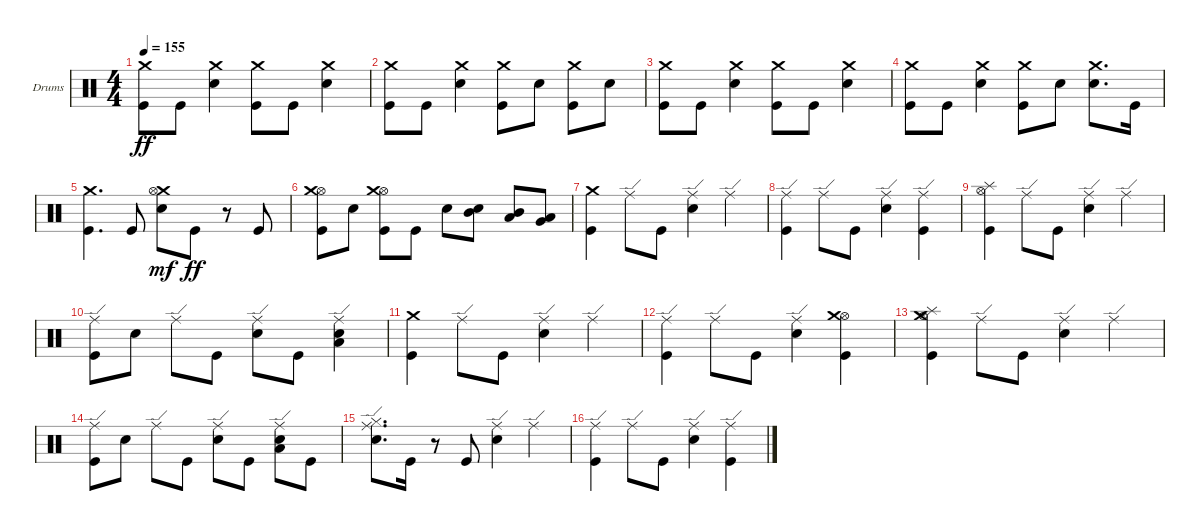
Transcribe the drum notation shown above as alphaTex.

\defaultSystemsLayout 4
\bracketExtendMode groupsimilarinstruments
\firstSystemTrackNameOrientation horizontal
\otherSystemsTrackNameOrientation horizontal
\track ("Drums - Brandon Barnes" "Drums") {instrument percussion}
\staff {score}
\articulation defaults
\ts (4 4)
\tempo 155
\clef neutral
\scale
0.333333
\ks c
("Crash medium (hit)" "Kick (hit)").8{dy ff} "Kick (hit)".8 ("Snare (hit) 2" "Crash medium (hit)").4 ("Crash medium (hit)" "Kick (hit)").8 "Kick (hit)".8 ("Snare (hit) 2" "Crash medium (hit)").4 |
\scale
0.333333 ("Crash medium (hit)" "Kick (hit)").8 "Kick (hit)".8 ("Snare (hit) 2" "Crash medium (hit)").4 ("Crash medium (hit)" "Kick (hit)").8 "Snare (hit) 2".8 ("Crash medium (hit)" "Kick (hit)").8 "Snare (hit) 2".8 |
\scale
0.333333 ("Crash medium (hit)" "Kick (hit)").8 "Kick (hit)".8 ("Snare (hit) 2" "Crash medium (hit)").4 ("Crash medium (hit)" "Kick (hit)").8 "Kick (hit)".8 ("Snare (hit) 2" "Crash medium (hit)").4 |
\scale
0.333333 ("Crash medium (hit)" "Kick (hit)").8 "Kick (hit)".8 ("Snare (hit) 2" "Crash medium (hit)").4 ("Crash medium (hit)" "Kick (hit)").8 "Snare (hit) 2".8 ("Snare (hit) 2" "Crash medium (hit)").8{d} "Kick (hit)".16 |
\scale
0.333333 ("Crash medium (hit)" "Kick (hit)").4{d} "Kick (hit)".8 ("Snare (hit) 2" "Crash medium (hit)" "Hi-Hat (open)").8{dy mf} "Kick (hit)".8{dy ff} r.8 "Kick (hit)".8 |
\scale
0.333333 ("Kick (hit)" "Hi-Hat (open)" "Crash medium (hit)").8 "Snare (hit) 2".8 ("Kick (hit)" "Hi-Hat (open)" "Crash medium (hit)").8 "Kick (hit)".8 "Snare (hit) 2".8 ("Mid Tom (hit)" "Snare (hit) 2").8 ("Mid Tom (hit)" "Low Tom (hit)").8 ("Low Tom (hit)" "Very Low Tom (hit)").8 |
\scale
0.333333 ("Kick (hit)" "Crash medium (hit)").4 "Ride (edge)".8 "Kick (hit)".8 ("Snare (hit) 2" "Ride (edge)").4 "Ride (edge)".4 |
\scale
0.333333 ("Kick (hit)" "Ride (edge)").4 "Ride (edge)".8 "Kick (hit)".8 ("Snare (hit) 2" "Ride (edge)").4 ("Ride (edge)" "Kick (hit)").4 |
\scale
0.333333 ("Kick (hit)" "Splash (hit)" "Hi-Hat (open)").4 "Ride (edge)".8 "Kick (hit)".8 ("Snare (hit) 2" "Ride (edge)").4 "Ride (edge)".4 |
\scale
0.333333 ("Kick (hit)" "Ride (edge)").8 "Snare (hit) 2".8 "Ride (edge)".8 "Kick (hit)".8 ("Snare (hit) 2" "Ride (edge)").8 "Kick (hit)".8 ("Snare (hit) 2" "Low Tom (hit)" "Ride (edge)").4 |
\scale
0.333333 ("Kick (hit)" "Crash medium (hit)").4 "Ride (edge)".8 "Kick (hit)".8 ("Snare (hit) 2" "Ride (edge)").4 "Ride (edge)".4 |
\scale
0.333333 ("Kick (hit)" "Ride (edge)").4 "Ride (edge)".8 "Kick (hit)".8 ("Snare (hit) 2" "Ride (edge)").4 ("Hi-Hat (open)" "Kick (hit)" "Crash medium (hit)").4 |
\scale
0.333333 ("Kick (hit)" "Splash (hit)" "Hi-Hat (open)" "Crash medium (hit)").4 "Ride (edge)".8 "Kick (hit)".8 ("Snare (hit) 2" "Ride (edge)").4 "Ride (edge)".4 |
\scale
0.333333 ("Kick (hit)" "Ride (edge)").8 "Snare (hit) 2".8 "Ride (edge)".8 "Kick (hit)".8 ("Snare (hit) 2" "Ride (edge)").8 "Kick (hit)".8 ("Snare (hit) 2" "Low Tom (hit)" "Ride (edge)").8 "Kick (hit)".8 |
\scale
0.333333 ("Ride (edge)" "Snare (hit) 2" "Hi-Hat (closed)").8{d} "Kick (hit)".16 r.8 "Kick (hit)".8 ("Snare (hit) 2" "Ride (edge)").4 "Ride (edge)".4 |
\scale
0.333333 ("Kick (hit)" "Ride (edge)").4 "Ride (edge)".8 "Kick (hit)".8 ("Snare (hit) 2" "Ride (edge)").4 ("Ride (edge)" "Kick (hit)").4
